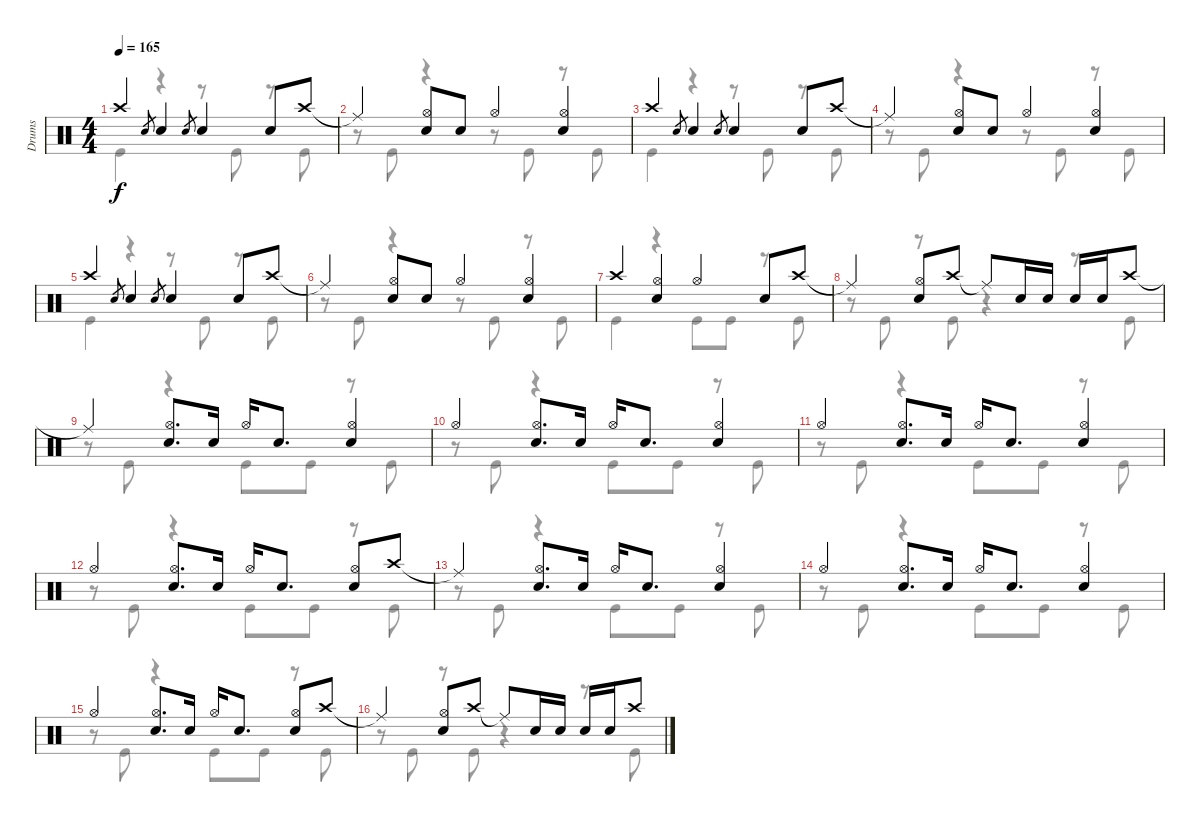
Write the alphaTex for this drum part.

\track ("Drums" "Drums") {instrument percussion}
\staff {score}
\articulation defaults
\voice
\ts (4 4)
\tempo 165
\clef neutral
\ks c "Crash high (hit)".4{dy f beam Up} "Snare (hit) 2".8{gr} "Snare (hit) 2".4{beam Up} "Snare (hit) 2".8{gr} "Snare (hit) 2".4{beam Up} "Snare (hit) 2".8{beam Up} "Crash high (hit)".8{beam Up}
|
"Ride (middle)"{t}.4{beam Up} ("Hi-Hat (open)" "Snare (hit) 2").8{beam Up} "Snare (hit) 2".8{beam Up} "Hi-Hat (open)".4{beam Up} ("Hi-Hat (open)" "Snare (hit) 2").4{beam Up} |
"Crash high (hit)".4{beam Up} "Snare (hit) 2".8{gr} "Snare (hit) 2".4{beam Up} "Snare (hit) 2".8{gr} "Snare (hit) 2".4{beam Up} "Snare (hit) 2".8{beam Up} "Crash high (hit)".8{beam Up} |
"Ride (middle)"{t}.4{beam Up} ("Hi-Hat (open)" "Snare (hit) 2").8{beam Up} "Snare (hit) 2".8{beam Up} "Hi-Hat (open)".4{beam Up} ("Hi-Hat (open)" "Snare (hit) 2").4{beam Up} |
"Crash high (hit)".4{beam Up} "Snare (hit) 2".8{gr} "Snare (hit) 2".4{beam Up} "Snare (hit) 2".8{gr} "Snare (hit) 2".4{beam Up} "Snare (hit) 2".8{beam Up} "Crash high (hit)".8{beam Up} |
"Ride (middle)"{t}.4{beam Up} ("Hi-Hat (open)" "Snare (hit) 2").8{beam Up} "Snare (hit) 2".8{beam Up} "Hi-Hat (open)".4{beam Up} ("Hi-Hat (open)" "Snare (hit) 2").4{beam Up} |
"Crash high (hit)".4{beam Up} ("Hi-Hat (open)" "Snare (hit) 2").4{beam Up} "Hi-Hat (open)".4{beam Up} "Snare (hit) 2".8{beam Up} "Crash high (hit)".8{beam Up} |
"Ride (middle)"{t}.4{beam Up} ("Hi-Hat (open)" "Snare (hit) 2").8{beam Up} "Crash high (hit)".8{beam Up} "Ride (middle)"{t}.8{beam Up} "Snare (hit) 2".16{beam Up} "Snare (hit) 2".16{beam Up} "Snare (hit) 2".16{beam Up} "Snare (hit) 2".16{beam Up} "Crash high (hit)".8{beam Up} |
"Ride (middle)"{t}.4{beam Up} ("Hi-Hat (open)" "Snare (hit) 2").8{d beam Up} "Snare (hit) 2".16{beam Up} "Hi-Hat (open)".16{beam Up} "Snare (hit) 2".8{d beam Up} ("Hi-Hat (open)" "Snare (hit) 2").4{beam Up} |
"Hi-Hat (open)".4{beam Up} ("Hi-Hat (open)" "Snare (hit) 2").8{d beam Up} "Snare (hit) 2".16{beam Up} "Hi-Hat (open)".16{beam Up} "Snare (hit) 2".8{d beam Up} ("Hi-Hat (open)" "Snare (hit) 2").4{beam Up} |
"Hi-Hat (open)".4{beam Up} ("Hi-Hat (open)" "Snare (hit) 2").8{d beam Up} "Snare (hit) 2".16{beam Up} "Hi-Hat (open)".16{beam Up} "Snare (hit) 2".8{d beam Up} ("Hi-Hat (open)" "Snare (hit) 2").4{beam Up} |
"Hi-Hat (open)".4{beam Up} ("Hi-Hat (open)" "Snare (hit) 2").8{d beam Up} "Snare (hit) 2".16{beam Up} "Hi-Hat (open)".16{beam Up} "Snare (hit) 2".8{d beam Up} ("Hi-Hat (open)" "Snare (hit) 2").8{beam Up} "Crash high (hit)".8{beam Up} |
"Ride (middle)"{t}.4{beam Up} ("Hi-Hat (open)" "Snare (hit) 2").8{d beam Up} "Snare (hit) 2".16{beam Up} "Hi-Hat (open)".16{beam Up} "Snare (hit) 2".8{d beam Up} ("Hi-Hat (open)" "Snare (hit) 2").4{beam Up} |
"Hi-Hat (open)".4{beam Up} ("Hi-Hat (open)" "Snare (hit) 2").8{d beam Up} "Snare (hit) 2".16{beam Up} "Hi-Hat (open)".16{beam Up} "Snare (hit) 2".8{d beam Up} ("Hi-Hat (open)" "Snare (hit) 2").4{beam Up} |
"Hi-Hat (open)".4{beam Up} ("Hi-Hat (open)" "Snare (hit) 2").8{d beam Up} "Snare (hit) 2".16{beam Up} "Hi-Hat (open)".16{beam Up} "Snare (hit) 2".8{d beam Up} ("Hi-Hat (open)" "Snare (hit) 2").8{beam Up} "Crash high (hit)".8{beam Up} |
"Ride (middle)"{t}.4{beam Up} ("Hi-Hat (open)" "Snare (hit) 2").8{beam Up} "Crash high (hit)".8{beam Up} "Ride (middle)"{t}.8{beam Up} "Snare (hit) 2".16{beam Up} "Snare (hit) 2".16{beam Up} "Snare (hit) 2".16{beam Up} "Snare (hit) 2".16{beam Up} "Crash high (hit)".8{beam Up}
\voice
\clef neutral
\ottava regular
\simile none
\ks c "Kick (hit)".4{dy f}
r.4 r.8 "Kick (hit)".8 r.8 "Kick (hit)".8 |
r.8 "Kick (hit)".8 r.4 r.8 "Kick (hit)".8 r.8 "Kick (hit)".8 |
"Kick (hit)".4 r.4 r.8 "Kick (hit)".8 r.8 "Kick (hit)".8 |
r.8 "Kick (hit)".8 r.4 r.8 "Kick (hit)".8 r.8 "Kick (hit)".8 |
"Kick (hit)".4 r.4 r.8 "Kick (hit)".8 r.8 "Kick (hit)".8 |
r.8 "Kick (hit)".8 r.4 r.8 "Kick (hit)".8 r.8 "Kick (hit)".8 |
"Kick (hit)".4 r.4 "Kick (hit)".8 "Kick (hit)".8 r.8 "Kick (hit)".8 |
r.8 "Kick (hit)".8 r.8 "Kick (hit)".8 r.4 r.8 "Kick (hit)".8 |
r.8 "Kick (hit)".8 r.4 "Kick (hit)".8 "Kick (hit)".8 r.8 "Kick (hit)".8 |
r.8 "Kick (hit)".8 r.4 "Kick (hit)".8 "Kick (hit)".8 r.8 "Kick (hit)".8 |
r.8 "Kick (hit)".8 r.4 "Kick (hit)".8 "Kick (hit)".8 r.8 "Kick (hit)".8 |
r.8 "Kick (hit)".8 r.4 "Kick (hit)".8 "Kick (hit)".8 r.8 "Kick (hit)".8 |
r.8 "Kick (hit)".8 r.4 "Kick (hit)".8 "Kick (hit)".8 r.8 "Kick (hit)".8 |
r.8 "Kick (hit)".8 r.4 "Kick (hit)".8 "Kick (hit)".8 r.8 "Kick (hit)".8 |
r.8 "Kick (hit)".8 r.4 "Kick (hit)".8 "Kick (hit)".8 r.8 "Kick (hit)".8 |
r.8 "Kick (hit)".8 r.8 "Kick (hit)".8 r.4 r.8 "Kick (hit)".8
